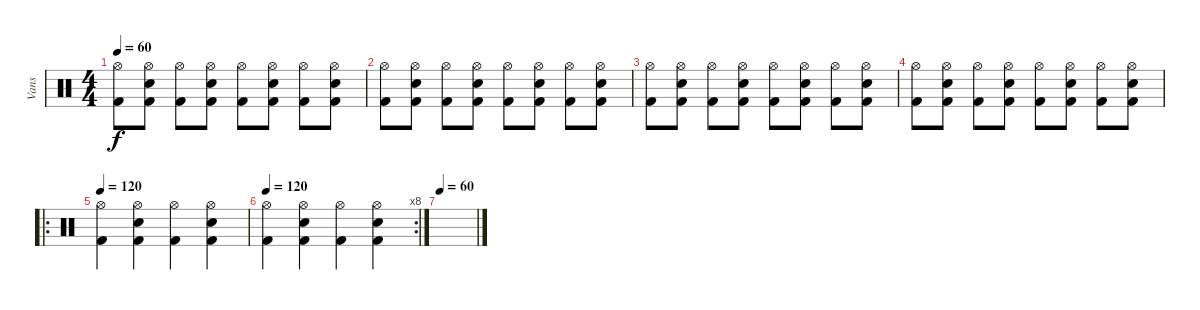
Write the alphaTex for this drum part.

\track ("Vans" "Vans") {instrument percussion}
\staff {score}
\articulation defaults
\ts (4 4)
\tempo 60
\clef neutral
\ks c
("Hi-Hat (open)" "Kick (hit) 2").8{dy f} ("Hi-Hat (open)" "Snare (hit) 2" "Kick (hit) 2").8 ("Hi-Hat (open)" "Kick (hit) 2").8 ("Hi-Hat (open)" "Snare (hit) 2" "Kick (hit) 2").8 ("Hi-Hat (open)" "Kick (hit) 2").8 ("Hi-Hat (open)" "Snare (hit) 2" "Kick (hit) 2").8 ("Hi-Hat (open)" "Kick (hit) 2").8 ("Hi-Hat (open)" "Snare (hit) 2" "Kick (hit) 2").8 |
("Hi-Hat (open)" "Kick (hit) 2").8 ("Hi-Hat (open)" "Snare (hit) 2" "Kick (hit) 2").8 ("Hi-Hat (open)" "Kick (hit) 2").8 ("Hi-Hat (open)" "Snare (hit) 2" "Kick (hit) 2").8 ("Hi-Hat (open)" "Kick (hit) 2").8 ("Hi-Hat (open)" "Snare (hit) 2" "Kick (hit) 2").8 ("Hi-Hat (open)" "Kick (hit) 2").8 ("Hi-Hat (open)" "Snare (hit) 2" "Kick (hit) 2").8 |
("Hi-Hat (open)" "Kick (hit) 2").8 ("Hi-Hat (open)" "Snare (hit) 2" "Kick (hit) 2").8 ("Hi-Hat (open)" "Kick (hit) 2").8 ("Hi-Hat (open)" "Snare (hit) 2" "Kick (hit) 2").8 ("Hi-Hat (open)" "Kick (hit) 2").8 ("Hi-Hat (open)" "Snare (hit) 2" "Kick (hit) 2").8 ("Hi-Hat (open)" "Kick (hit) 2").8 ("Hi-Hat (open)" "Snare (hit) 2" "Kick (hit) 2").8 |
("Hi-Hat (open)" "Kick (hit) 2").8 ("Hi-Hat (open)" "Snare (hit) 2" "Kick (hit) 2").8 ("Hi-Hat (open)" "Kick (hit) 2").8 ("Hi-Hat (open)" "Snare (hit) 2" "Kick (hit) 2").8 ("Hi-Hat (open)" "Kick (hit) 2").8 ("Hi-Hat (open)" "Snare (hit) 2" "Kick (hit) 2").8 ("Hi-Hat (open)" "Kick (hit) 2").8 ("Hi-Hat (open)" "Snare (hit) 2" "Kick (hit) 2").8 |
\ro
\tempo 120
("Hi-Hat (open)" "Kick (hit) 2").4 ("Hi-Hat (open)" "Snare (hit) 2" "Kick (hit) 2").4 ("Hi-Hat (open)" "Kick (hit) 2").4 ("Hi-Hat (open)" "Snare (hit) 2" "Kick (hit) 2").4 |
\rc 8
\tempo 120
("Hi-Hat (open)" "Kick (hit) 2").4 ("Hi-Hat (open)" "Snare (hit) 2" "Kick (hit) 2").4 ("Hi-Hat (open)" "Kick (hit) 2").4 ("Hi-Hat (open)" "Snare (hit) 2" "Kick (hit) 2").4 |
\tempo 60
